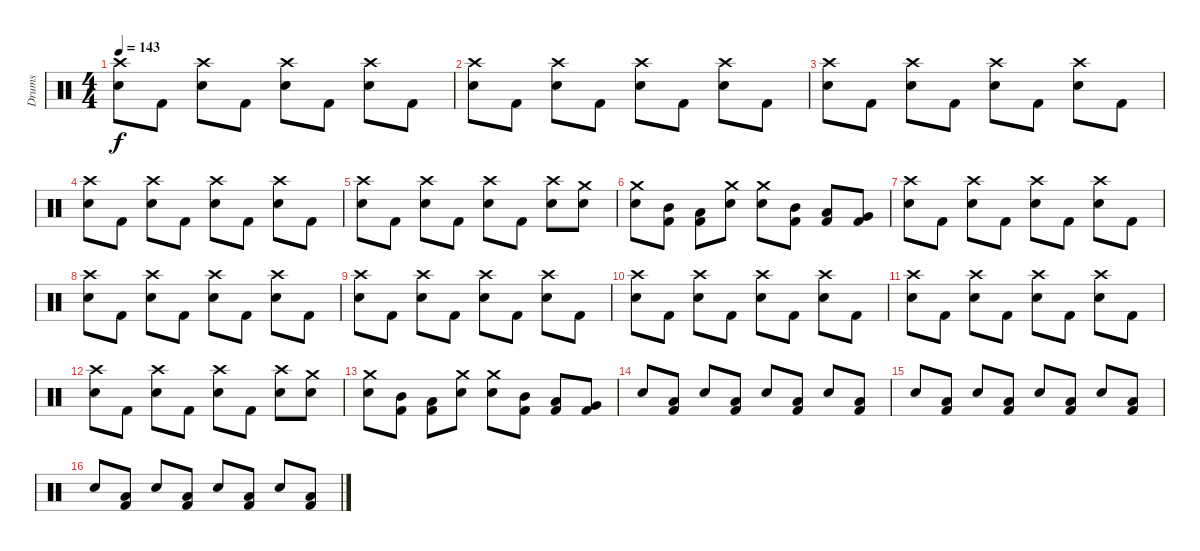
\track ("Drums" "Drums") {instrument percussion}
\staff {score}
\articulation defaults
\ts (4 4)
\tempo 143
\clef neutral
\ks c
("Crash high (hit)" "Electric Snare (hit)").8{dy f} "Kick (hit) 2".8 ("Crash high (hit)" "Electric Snare (hit)").8 "Kick (hit) 2".8 ("Crash high (hit)" "Electric Snare (hit)").8 "Kick (hit) 2".8 ("Crash high (hit)" "Electric Snare (hit)").8 "Kick (hit) 2".8 |
("Crash high (hit)" "Electric Snare (hit)").8 "Kick (hit) 2".8 ("Crash high (hit)" "Electric Snare (hit)").8 "Kick (hit) 2".8 ("Crash high (hit)" "Electric Snare (hit)").8 "Kick (hit) 2".8 ("Crash high (hit)" "Electric Snare (hit)").8 "Kick (hit) 2".8 |
("Crash high (hit)" "Electric Snare (hit)").8 "Kick (hit) 2".8 ("Crash high (hit)" "Electric Snare (hit)").8 "Kick (hit) 2".8 ("Crash high (hit)" "Electric Snare (hit)").8 "Kick (hit) 2".8 ("Crash high (hit)" "Electric Snare (hit)").8 "Kick (hit) 2".8 |
("Crash high (hit)" "Electric Snare (hit)").8 "Kick (hit) 2".8 ("Crash high (hit)" "Electric Snare (hit)").8 "Kick (hit) 2".8 ("Crash high (hit)" "Electric Snare (hit)").8 "Kick (hit) 2".8 ("Crash high (hit)" "Electric Snare (hit)").8 "Kick (hit) 2".8 |
("Crash high (hit)" "Electric Snare (hit)").8 "Kick (hit) 2".8 ("Crash high (hit)" "Electric Snare (hit)").8 "Kick (hit) 2".8 ("Crash high (hit)" "Electric Snare (hit)").8 "Kick (hit) 2".8 ("Crash high (hit)" "Electric Snare (hit)").8 ("Crash medium (hit)" "Electric Snare (hit)").8 |
("Crash medium (hit)" "Electric Snare (hit)").8 ("Mid Tom (hit)" "Kick (hit) 2").8 ("Low Tom (hit)" "Kick (hit) 2").8 ("Crash medium (hit)" "Electric Snare (hit)").8 ("Crash medium (hit)" "Electric Snare (hit)").8 ("Mid Tom (hit)" "Kick (hit) 2").8 ("Low Tom (hit)" "Kick (hit) 2").8 ("Very Low Tom (hit)" "Kick (hit) 2").8 |
("Crash high (hit)" "Electric Snare (hit)").8 "Kick (hit) 2".8 ("Crash high (hit)" "Electric Snare (hit)").8 "Kick (hit) 2".8 ("Crash high (hit)" "Electric Snare (hit)").8 "Kick (hit) 2".8 ("Crash high (hit)" "Electric Snare (hit)").8 "Kick (hit) 2".8 |
("Crash high (hit)" "Electric Snare (hit)").8 "Kick (hit) 2".8 ("Crash high (hit)" "Electric Snare (hit)").8 "Kick (hit) 2".8 ("Crash high (hit)" "Electric Snare (hit)").8 "Kick (hit) 2".8 ("Crash high (hit)" "Electric Snare (hit)").8 "Kick (hit) 2".8 |
("Crash high (hit)" "Electric Snare (hit)").8 "Kick (hit) 2".8 ("Crash high (hit)" "Electric Snare (hit)").8 "Kick (hit) 2".8 ("Crash high (hit)" "Electric Snare (hit)").8 "Kick (hit) 2".8 ("Crash high (hit)" "Electric Snare (hit)").8 "Kick (hit) 2".8 |
("Crash high (hit)" "Electric Snare (hit)").8 "Kick (hit) 2".8 ("Crash high (hit)" "Electric Snare (hit)").8 "Kick (hit) 2".8 ("Crash high (hit)" "Electric Snare (hit)").8 "Kick (hit) 2".8 ("Crash high (hit)" "Electric Snare (hit)").8 "Kick (hit) 2".8 |
("Crash high (hit)" "Electric Snare (hit)").8 "Kick (hit) 2".8 ("Crash high (hit)" "Electric Snare (hit)").8 "Kick (hit) 2".8 ("Crash high (hit)" "Electric Snare (hit)").8 "Kick (hit) 2".8 ("Crash high (hit)" "Electric Snare (hit)").8 "Kick (hit) 2".8 |
("Crash high (hit)" "Electric Snare (hit)").8 "Kick (hit) 2".8 ("Crash high (hit)" "Electric Snare (hit)").8 "Kick (hit) 2".8 ("Crash high (hit)" "Electric Snare (hit)").8 "Kick (hit) 2".8 ("Crash high (hit)" "Electric Snare (hit)").8 ("Crash medium (hit)" "Electric Snare (hit)").8 |
("Crash medium (hit)" "Electric Snare (hit)").8 ("Mid Tom (hit)" "Kick (hit) 2").8 ("Low Tom (hit)" "Kick (hit) 2").8 ("Crash medium (hit)" "Electric Snare (hit)").8 ("Crash medium (hit)" "Electric Snare (hit)").8 ("Mid Tom (hit)" "Kick (hit) 2").8 ("Low Tom (hit)" "Kick (hit) 2").8 ("Very Low Tom (hit)" "Kick (hit) 2").8 |
"Electric Snare (hit)".8 ("Low Tom (hit)" "Kick (hit) 2").8 "Electric Snare (hit)".8 ("Low Tom (hit)" "Kick (hit) 2").8 "Electric Snare (hit)".8 ("Low Tom (hit)" "Kick (hit) 2").8 "Electric Snare (hit)".8 ("Low Tom (hit)" "Kick (hit) 2").8 |
"Electric Snare (hit)".8 ("Low Tom (hit)" "Kick (hit) 2").8 "Electric Snare (hit)".8 ("Low Tom (hit)" "Kick (hit) 2").8 "Electric Snare (hit)".8 ("Low Tom (hit)" "Kick (hit) 2").8 "Electric Snare (hit)".8 ("Low Tom (hit)" "Kick (hit) 2").8 |
"Electric Snare (hit)".8 ("Low Tom (hit)" "Kick (hit) 2").8 "Electric Snare (hit)".8 ("Low Tom (hit)" "Kick (hit) 2").8 "Electric Snare (hit)".8 ("Low Tom (hit)" "Kick (hit) 2").8 "Electric Snare (hit)".8 ("Low Tom (hit)" "Kick (hit) 2").8
